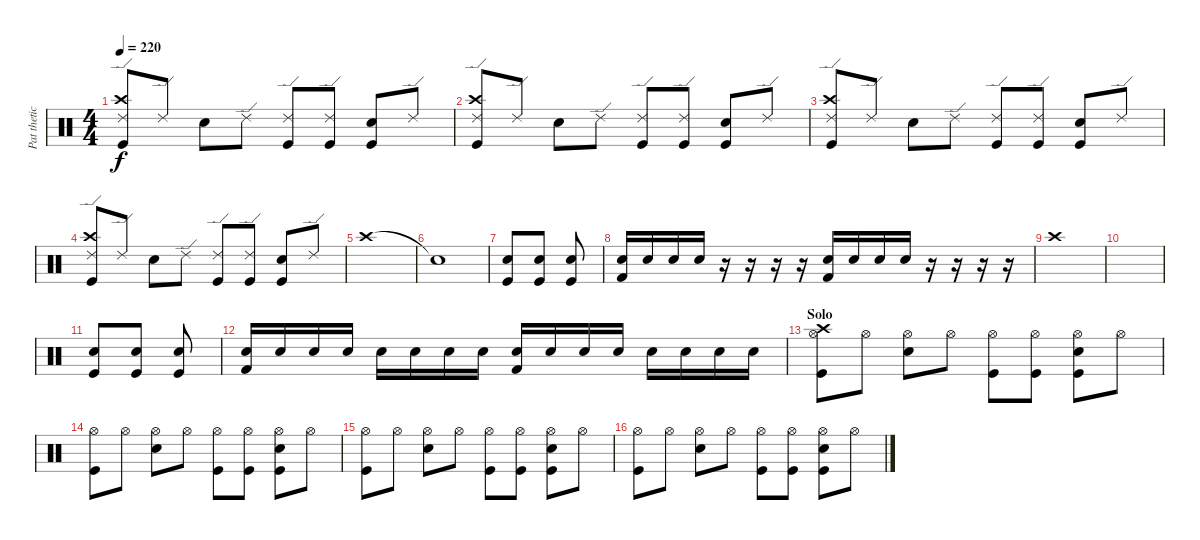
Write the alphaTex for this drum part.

\track ("Pat thetic (Drums)" "Pat thetic") {instrument percussion}
\staff {score}
\articulation defaults
\ts (4 4)
\tempo 220
\clef neutral
\ks c
("Kick (hit)" "Crash high (hit)" "Ride (edge) 2").8{dy f} "Ride (edge) 2".8 "Electric Snare (hit)".8 "Ride (edge) 2".8 ("Kick (hit)" "Ride (edge) 2").8 ("Kick (hit)" "Ride (edge) 2").8 ("Kick (hit)" "Electric Snare (hit)").8 "Ride (edge) 2".8 |
("Kick (hit)" "Crash high (hit)" "Ride (edge) 2").8 "Ride (edge) 2".8 "Electric Snare (hit)".8 "Ride (edge) 2".8 ("Kick (hit)" "Ride (edge) 2").8 ("Kick (hit)" "Ride (edge) 2").8 ("Kick (hit)" "Electric Snare (hit)").8 "Ride (edge) 2".8 |
("Kick (hit)" "Crash high (hit)" "Ride (edge) 2").8 "Ride (edge) 2".8 "Electric Snare (hit)".8 "Ride (edge) 2".8 ("Kick (hit)" "Ride (edge) 2").8 ("Kick (hit)" "Ride (edge) 2").8 ("Kick (hit)" "Electric Snare (hit)").8 "Ride (edge) 2".8 |
("Kick (hit)" "Crash high (hit)" "Ride (edge) 2").8 "Ride (edge) 2".8 "Electric Snare (hit)".8 "Ride (edge) 2".8 ("Kick (hit)" "Ride (edge) 2").8 ("Kick (hit)" "Ride (edge) 2").8 ("Kick (hit)" "Electric Snare (hit)").8 "Ride (edge) 2".8 |
"Crash high (hit)".1 |
"Snare (hit)"{t}.1 |
("Kick (hit)" "Electric Snare (hit)").8 ("Kick (hit)" "Electric Snare (hit)").8 ("Kick (hit)" "Electric Snare (hit)").8 |
("Kick (hit) 2" "Electric Snare (hit)").16 "Electric Snare (hit)".16 "Electric Snare (hit)".16 "Electric Snare (hit)".16 r.16 r.16 r.16 r.16 ("Kick (hit) 2" "Electric Snare (hit)").16 "Electric Snare (hit)".16 "Electric Snare (hit)".16 "Electric Snare (hit)".16 r.16 r.16 r.16 r.16 |
"Crash high (hit)".1 |
|
("Kick (hit)" "Electric Snare (hit)").8 ("Kick (hit)" "Electric Snare (hit)").8 ("Kick (hit)" "Electric Snare (hit)").8 |
("Kick (hit) 2" "Electric Snare (hit)").16 "Electric Snare (hit)".16 "Electric Snare (hit)".16 "Electric Snare (hit)".16 "Electric Snare (hit)".16 "Electric Snare (hit)".16 "Electric Snare (hit)".16 "Electric Snare (hit)".16 ("Kick (hit) 2" "Electric Snare (hit)").16 "Electric Snare (hit)".16 "Electric Snare (hit)".16 "Electric Snare (hit)".16 "Electric Snare (hit)".16 "Electric Snare (hit)".16 "Electric Snare (hit)".16 "Electric Snare (hit)".16 |
\section ("" "Solo")
("Kick (hit)" "Crash high (hit)" "Hi-Hat (open)").8 "Hi-Hat (open)".8 ("Electric Snare (hit)" "Hi-Hat (open)").8 "Hi-Hat (open)".8 ("Kick (hit)" "Hi-Hat (open)").8 ("Kick (hit)" "Hi-Hat (open)").8 ("Kick (hit)" "Electric Snare (hit)" "Hi-Hat (open)").8 "Hi-Hat (open)".8 |
("Kick (hit)" "Hi-Hat (open)").8 "Hi-Hat (open)".8 ("Electric Snare (hit)" "Hi-Hat (open)").8 "Hi-Hat (open)".8 ("Kick (hit)" "Hi-Hat (open)").8 ("Kick (hit)" "Hi-Hat (open)").8 ("Kick (hit)" "Electric Snare (hit)" "Hi-Hat (open)").8 "Hi-Hat (open)".8 |
("Kick (hit)" "Hi-Hat (open)").8 "Hi-Hat (open)".8 ("Electric Snare (hit)" "Hi-Hat (open)").8 "Hi-Hat (open)".8 ("Kick (hit)" "Hi-Hat (open)").8 ("Kick (hit)" "Hi-Hat (open)").8 ("Kick (hit)" "Electric Snare (hit)" "Hi-Hat (open)").8 "Hi-Hat (open)".8 |
("Kick (hit)" "Hi-Hat (open)").8 "Hi-Hat (open)".8 ("Electric Snare (hit)" "Hi-Hat (open)").8 "Hi-Hat (open)".8 ("Kick (hit)" "Hi-Hat (open)").8 ("Kick (hit)" "Hi-Hat (open)").8 ("Kick (hit)" "Electric Snare (hit)" "Hi-Hat (open)").8 "Hi-Hat (open)".8
